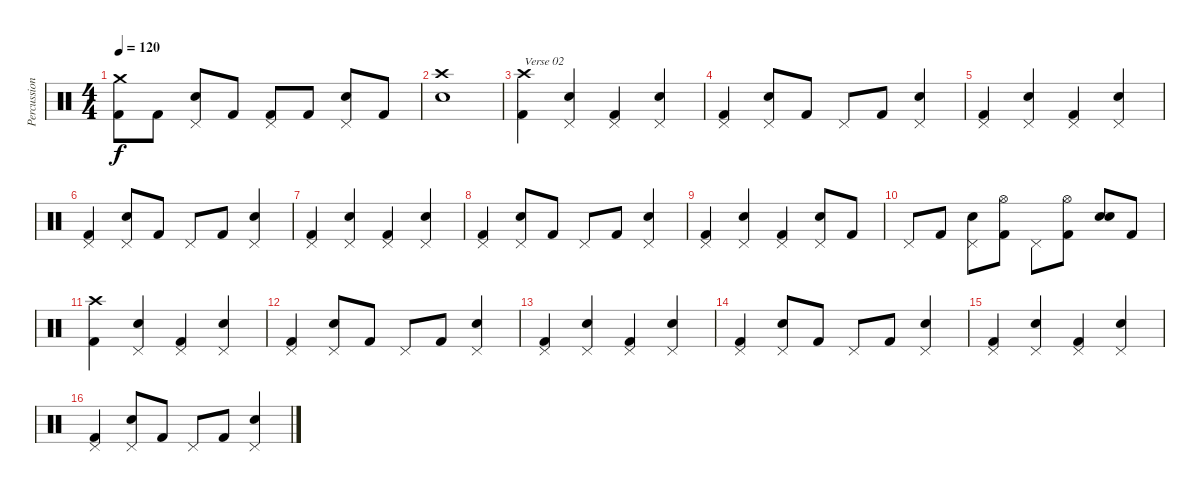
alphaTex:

\track ("Percussion" "Percussion") {instrument percussion}
\staff {score}
\articulation defaults
\ts (4 4)
\tempo 120
\clef neutral
\ks c
("Crash medium (hit)" "Kick (hit) 2").8{dy f} "Kick (hit) 2".8 ("Pedal Hi-Hat (hit)" "Snare (hit) 2").8 "Kick (hit) 2".8 ("Pedal Hi-Hat (hit)" "Kick (hit) 2").8 "Kick (hit) 2".8 ("Pedal Hi-Hat (hit)" "Snare (hit) 2").8 "Kick (hit) 2".8 |
("Crash high (hit)" "Snare (hit) 2").1 |
("Crash high (hit)" "Kick (hit) 2").4{txt "Verse 02"} ("Pedal Hi-Hat (hit)" "Snare (hit) 2").4 ("Pedal Hi-Hat (hit)" "Kick (hit) 2").4 ("Pedal Hi-Hat (hit)" "Snare (hit) 2").4 |
("Pedal Hi-Hat (hit)" "Kick (hit) 2").4 ("Pedal Hi-Hat (hit)" "Snare (hit) 2").8 "Kick (hit) 2".8 "Pedal Hi-Hat (hit)".8 "Kick (hit) 2".8 ("Pedal Hi-Hat (hit)" "Snare (hit) 2").4 |
("Pedal Hi-Hat (hit)" "Kick (hit) 2").4 ("Pedal Hi-Hat (hit)" "Snare (hit) 2").4 ("Pedal Hi-Hat (hit)" "Kick (hit) 2").4 ("Pedal Hi-Hat (hit)" "Snare (hit) 2").4 |
("Pedal Hi-Hat (hit)" "Kick (hit) 2").4 ("Pedal Hi-Hat (hit)" "Snare (hit) 2").8 "Kick (hit) 2".8 "Pedal Hi-Hat (hit)".8 "Kick (hit) 2".8 ("Pedal Hi-Hat (hit)" "Snare (hit) 2").4 |
("Pedal Hi-Hat (hit)" "Kick (hit) 2").4 ("Pedal Hi-Hat (hit)" "Snare (hit) 2").4 ("Pedal Hi-Hat (hit)" "Kick (hit) 2").4 ("Pedal Hi-Hat (hit)" "Snare (hit) 2").4 |
("Pedal Hi-Hat (hit)" "Kick (hit) 2").4 ("Pedal Hi-Hat (hit)" "Snare (hit) 2").8 "Kick (hit) 2".8 "Pedal Hi-Hat (hit)".8 "Kick (hit) 2".8 ("Pedal Hi-Hat (hit)" "Snare (hit) 2").4 |
("Pedal Hi-Hat (hit)" "Kick (hit) 2").4 ("Pedal Hi-Hat (hit)" "Snare (hit) 2").4 ("Pedal Hi-Hat (hit)" "Kick (hit) 2").4 ("Pedal Hi-Hat (hit)" "Snare (hit) 2").8 "Kick (hit) 2".8 |
"Pedal Hi-Hat (hit)".8 "Kick (hit) 2".8 ("Pedal Hi-Hat (hit)" "Snare (hit) 2").8 ("Hi-Hat (open)" "Kick (hit) 2").8 "Pedal Hi-Hat (hit)".8 ("Hi-Hat (open)" "Kick (hit) 2").8 ("Snare (hit) 2" "Snare (hit) 2").8 "Kick (hit) 2".8 |
("Crash high (hit)" "Kick (hit) 2").4 ("Pedal Hi-Hat (hit)" "Snare (hit) 2").4 ("Pedal Hi-Hat (hit)" "Kick (hit) 2").4 ("Pedal Hi-Hat (hit)" "Snare (hit) 2").4 |
("Pedal Hi-Hat (hit)" "Kick (hit) 2").4 ("Pedal Hi-Hat (hit)" "Snare (hit) 2").8 "Kick (hit) 2".8 "Pedal Hi-Hat (hit)".8 "Kick (hit) 2".8 ("Pedal Hi-Hat (hit)" "Snare (hit) 2").4 |
("Pedal Hi-Hat (hit)" "Kick (hit) 2").4 ("Pedal Hi-Hat (hit)" "Snare (hit) 2").4 ("Pedal Hi-Hat (hit)" "Kick (hit) 2").4 ("Pedal Hi-Hat (hit)" "Snare (hit) 2").4 |
("Pedal Hi-Hat (hit)" "Kick (hit) 2").4 ("Pedal Hi-Hat (hit)" "Snare (hit) 2").8 "Kick (hit) 2".8 "Pedal Hi-Hat (hit)".8 "Kick (hit) 2".8 ("Pedal Hi-Hat (hit)" "Snare (hit) 2").4 |
("Pedal Hi-Hat (hit)" "Kick (hit) 2").4 ("Pedal Hi-Hat (hit)" "Snare (hit) 2").4 ("Pedal Hi-Hat (hit)" "Kick (hit) 2").4 ("Pedal Hi-Hat (hit)" "Snare (hit) 2").4 |
("Pedal Hi-Hat (hit)" "Kick (hit) 2").4 ("Pedal Hi-Hat (hit)" "Snare (hit) 2").8 "Kick (hit) 2".8 "Pedal Hi-Hat (hit)".8 "Kick (hit) 2".8 ("Pedal Hi-Hat (hit)" "Snare (hit) 2").4
